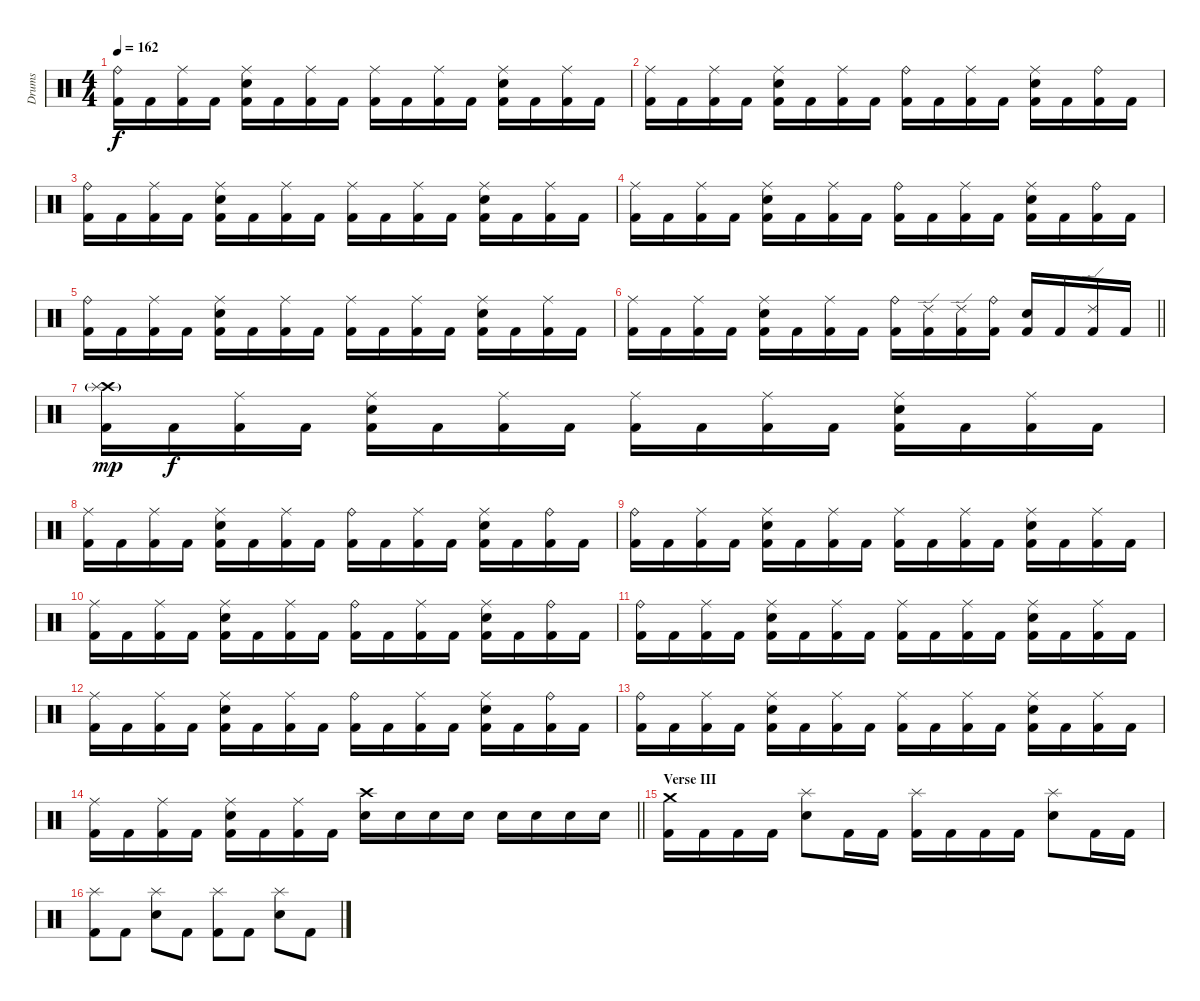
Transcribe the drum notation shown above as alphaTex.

\track ("Drums" "Drums") {instrument percussion}
\staff {score}
\articulation defaults
\ts (4 4)
\tempo 162
\clef neutral
\ks c
("Kick (hit) 2" "Ride (bell)").16{dy f} "Kick (hit) 2".16 ("Kick (hit) 2" "Ride (middle)").16 "Kick (hit) 2".16 ("Kick (hit) 2" "Snare (hit) 2" "Ride (middle)").16 "Kick (hit) 2".16 ("Kick (hit) 2" "Ride (middle)").16 "Kick (hit) 2".16 ("Kick (hit) 2" "Ride (middle)").16 "Kick (hit) 2".16 ("Kick (hit) 2" "Ride (middle)").16 "Kick (hit) 2".16 ("Kick (hit) 2" "Snare (hit) 2" "Ride (middle)").16 "Kick (hit) 2".16 ("Kick (hit) 2" "Ride (middle)").16 "Kick (hit) 2".16 |
("Kick (hit) 2" "Ride (middle)").16 "Kick (hit) 2".16 ("Kick (hit) 2" "Ride (middle)").16 "Kick (hit) 2".16 ("Kick (hit) 2" "Snare (hit) 2" "Ride (middle)").16 "Kick (hit) 2".16 ("Kick (hit) 2" "Ride (middle)").16 "Kick (hit) 2".16 ("Kick (hit) 2" "Ride (bell)").16 "Kick (hit) 2".16 ("Kick (hit) 2" "Ride (middle)").16 "Kick (hit) 2".16 ("Kick (hit) 2" "Snare (hit) 2" "Ride (middle)").16 "Kick (hit) 2".16 ("Kick (hit) 2" "Ride (bell)").16 "Kick (hit) 2".16 |
("Kick (hit) 2" "Ride (bell)").16 "Kick (hit) 2".16 ("Kick (hit) 2" "Ride (middle)").16 "Kick (hit) 2".16 ("Kick (hit) 2" "Snare (hit) 2" "Ride (middle)").16 "Kick (hit) 2".16 ("Kick (hit) 2" "Ride (middle)").16 "Kick (hit) 2".16 ("Kick (hit) 2" "Ride (middle)").16 "Kick (hit) 2".16 ("Kick (hit) 2" "Ride (middle)").16 "Kick (hit) 2".16 ("Kick (hit) 2" "Snare (hit) 2" "Ride (middle)").16 "Kick (hit) 2".16 ("Kick (hit) 2" "Ride (middle)").16 "Kick (hit) 2".16 |
("Kick (hit) 2" "Ride (middle)").16 "Kick (hit) 2".16 ("Kick (hit) 2" "Ride (middle)").16 "Kick (hit) 2".16 ("Kick (hit) 2" "Snare (hit) 2" "Ride (middle)").16 "Kick (hit) 2".16 ("Kick (hit) 2" "Ride (middle)").16 "Kick (hit) 2".16 ("Kick (hit) 2" "Ride (bell)").16 "Kick (hit) 2".16 ("Kick (hit) 2" "Ride (middle)").16 "Kick (hit) 2".16 ("Kick (hit) 2" "Snare (hit) 2" "Ride (middle)").16 "Kick (hit) 2".16 ("Kick (hit) 2" "Ride (bell)").16 "Kick (hit) 2".16 |
("Kick (hit) 2" "Ride (bell)").16 "Kick (hit) 2".16 ("Kick (hit) 2" "Ride (middle)").16 "Kick (hit) 2".16 ("Kick (hit) 2" "Snare (hit) 2" "Ride (middle)").16 "Kick (hit) 2".16 ("Kick (hit) 2" "Ride (middle)").16 "Kick (hit) 2".16 ("Kick (hit) 2" "Ride (middle)").16 "Kick (hit) 2".16 ("Kick (hit) 2" "Ride (middle)").16 "Kick (hit) 2".16 ("Kick (hit) 2" "Snare (hit) 2" "Ride (middle)").16 "Kick (hit) 2".16 ("Kick (hit) 2" "Ride (middle)").16 "Kick (hit) 2".16 |
\barLineRight lightlight
("Kick (hit) 2" "Ride (middle)").16 "Kick (hit) 2".16 ("Kick (hit) 2" "Ride (middle)").16 "Kick (hit) 2".16 ("Kick (hit) 2" "Snare (hit) 2" "Ride (middle)").16 "Kick (hit) 2".16 ("Kick (hit) 2" "Ride (middle)").16 "Kick (hit) 2".16 ("Kick (hit) 2" "Ride (bell)").16 ("Kick (hit) 2" "Ride (edge) 2").16 ("Kick (hit) 2" "Ride (edge) 2").16 ("Kick (hit) 2" "Ride (bell)").16 ("Kick (hit) 2" "Snare (hit) 2").16 "Kick (hit) 2".16 ("Kick (hit) 2" "Ride (edge) 2").16 "Kick (hit) 2".16 |
\section ("" "")
("Kick (hit) 2" "Crash high (hit)"{g} "Splash (hit)").16{dy mp} "Kick (hit) 2".16{dy f} ("Kick (hit) 2" "Ride (middle)").16 "Kick (hit) 2".16 ("Kick (hit) 2" "Snare (hit) 2" "Ride (middle)").16 "Kick (hit) 2".16 ("Kick (hit) 2" "Ride (middle)").16 "Kick (hit) 2".16 ("Kick (hit) 2" "Ride (middle)").16 "Kick (hit) 2".16 ("Kick (hit) 2" "Ride (middle)").16 "Kick (hit) 2".16 ("Kick (hit) 2" "Snare (hit) 2" "Ride (middle)").16 "Kick (hit) 2".16 ("Kick (hit) 2" "Ride (middle)").16 "Kick (hit) 2".16 |
("Kick (hit) 2" "Ride (middle)").16 "Kick (hit) 2".16 ("Kick (hit) 2" "Ride (middle)").16 "Kick (hit) 2".16 ("Kick (hit) 2" "Snare (hit) 2" "Ride (middle)").16 "Kick (hit) 2".16 ("Kick (hit) 2" "Ride (middle)").16 "Kick (hit) 2".16 ("Kick (hit) 2" "Ride (bell)").16 "Kick (hit) 2".16 ("Kick (hit) 2" "Ride (middle)").16 "Kick (hit) 2".16 ("Kick (hit) 2" "Snare (hit) 2" "Ride (middle)").16 "Kick (hit) 2".16 ("Kick (hit) 2" "Ride (bell)").16 "Kick (hit) 2".16 |
("Kick (hit) 2" "Ride (bell)").16 "Kick (hit) 2".16 ("Kick (hit) 2" "Ride (middle)").16 "Kick (hit) 2".16 ("Kick (hit) 2" "Snare (hit) 2" "Ride (middle)").16 "Kick (hit) 2".16 ("Kick (hit) 2" "Ride (middle)").16 "Kick (hit) 2".16 ("Kick (hit) 2" "Ride (middle)").16 "Kick (hit) 2".16 ("Kick (hit) 2" "Ride (middle)").16 "Kick (hit) 2".16 ("Kick (hit) 2" "Snare (hit) 2" "Ride (middle)").16 "Kick (hit) 2".16 ("Kick (hit) 2" "Ride (middle)").16 "Kick (hit) 2".16 |
("Kick (hit) 2" "Ride (middle)").16 "Kick (hit) 2".16 ("Kick (hit) 2" "Ride (middle)").16 "Kick (hit) 2".16 ("Kick (hit) 2" "Snare (hit) 2" "Ride (middle)").16 "Kick (hit) 2".16 ("Kick (hit) 2" "Ride (middle)").16 "Kick (hit) 2".16 ("Kick (hit) 2" "Ride (bell)").16 "Kick (hit) 2".16 ("Kick (hit) 2" "Ride (middle)").16 "Kick (hit) 2".16 ("Kick (hit) 2" "Snare (hit) 2" "Ride (middle)").16 "Kick (hit) 2".16 ("Kick (hit) 2" "Ride (bell)").16 "Kick (hit) 2".16 |
("Kick (hit) 2" "Ride (bell)").16 "Kick (hit) 2".16 ("Kick (hit) 2" "Ride (middle)").16 "Kick (hit) 2".16 ("Kick (hit) 2" "Snare (hit) 2" "Ride (middle)").16 "Kick (hit) 2".16 ("Kick (hit) 2" "Ride (middle)").16 "Kick (hit) 2".16 ("Kick (hit) 2" "Ride (middle)").16 "Kick (hit) 2".16 ("Kick (hit) 2" "Ride (middle)").16 "Kick (hit) 2".16 ("Kick (hit) 2" "Snare (hit) 2" "Ride (middle)").16 "Kick (hit) 2".16 ("Kick (hit) 2" "Ride (middle)").16 "Kick (hit) 2".16 |
("Kick (hit) 2" "Ride (middle)").16 "Kick (hit) 2".16 ("Kick (hit) 2" "Ride (middle)").16 "Kick (hit) 2".16 ("Kick (hit) 2" "Snare (hit) 2" "Ride (middle)").16 "Kick (hit) 2".16 ("Kick (hit) 2" "Ride (middle)").16 "Kick (hit) 2".16 ("Kick (hit) 2" "Ride (bell)").16 "Kick (hit) 2".16 ("Kick (hit) 2" "Ride (middle)").16 "Kick (hit) 2".16 ("Kick (hit) 2" "Snare (hit) 2" "Ride (middle)").16 "Kick (hit) 2".16 ("Kick (hit) 2" "Ride (bell)").16 "Kick (hit) 2".16 |
("Kick (hit) 2" "Ride (bell)").16 "Kick (hit) 2".16 ("Kick (hit) 2" "Ride (middle)").16 "Kick (hit) 2".16 ("Kick (hit) 2" "Snare (hit) 2" "Ride (middle)").16 "Kick (hit) 2".16 ("Kick (hit) 2" "Ride (middle)").16 "Kick (hit) 2".16 ("Kick (hit) 2" "Ride (middle)").16 "Kick (hit) 2".16 ("Kick (hit) 2" "Ride (middle)").16 "Kick (hit) 2".16 ("Kick (hit) 2" "Snare (hit) 2" "Ride (middle)").16 "Kick (hit) 2".16 ("Kick (hit) 2" "Ride (middle)").16 "Kick (hit) 2".16 |
\barLineRight lightlight
("Kick (hit) 2" "Ride (middle)").16 "Kick (hit) 2".16 ("Kick (hit) 2" "Ride (middle)").16 "Kick (hit) 2".16 ("Kick (hit) 2" "Snare (hit) 2" "Ride (middle)").16 "Kick (hit) 2".16 ("Kick (hit) 2" "Ride (middle)").16 "Kick (hit) 2".16 ("Snare (hit) 2" "Crash high (hit)").16 "Snare (hit) 2".16 "Snare (hit) 2".16 "Snare (hit) 2".16 "Snare (hit) 2".16 "Snare (hit) 2".16 "Snare (hit) 2".16 "Snare (hit) 2".16 |
\section ("" "Verse III")
("Kick (hit) 2" "Crash medium (hit)").16 "Kick (hit) 2".16 "Kick (hit) 2".16 "Kick (hit) 2".16 ("Snare (hit) 2" "Splash (hit)").8 "Kick (hit) 2".16 "Kick (hit) 2".16 ("Kick (hit) 2" "Splash (hit)").16 "Kick (hit) 2".16 "Kick (hit) 2".16 "Kick (hit) 2".16 ("Snare (hit) 2" "Splash (hit)").8 "Kick (hit) 2".16 "Kick (hit) 2".16 |
("Kick (hit) 2" "Splash (hit)").8 "Kick (hit) 2".8 ("Snare (hit) 2" "Splash (hit)").8 "Kick (hit) 2".8 ("Kick (hit) 2" "Splash (hit)").8 "Kick (hit) 2".8 ("Snare (hit) 2" "Splash (hit)").8 "Kick (hit) 2".8
